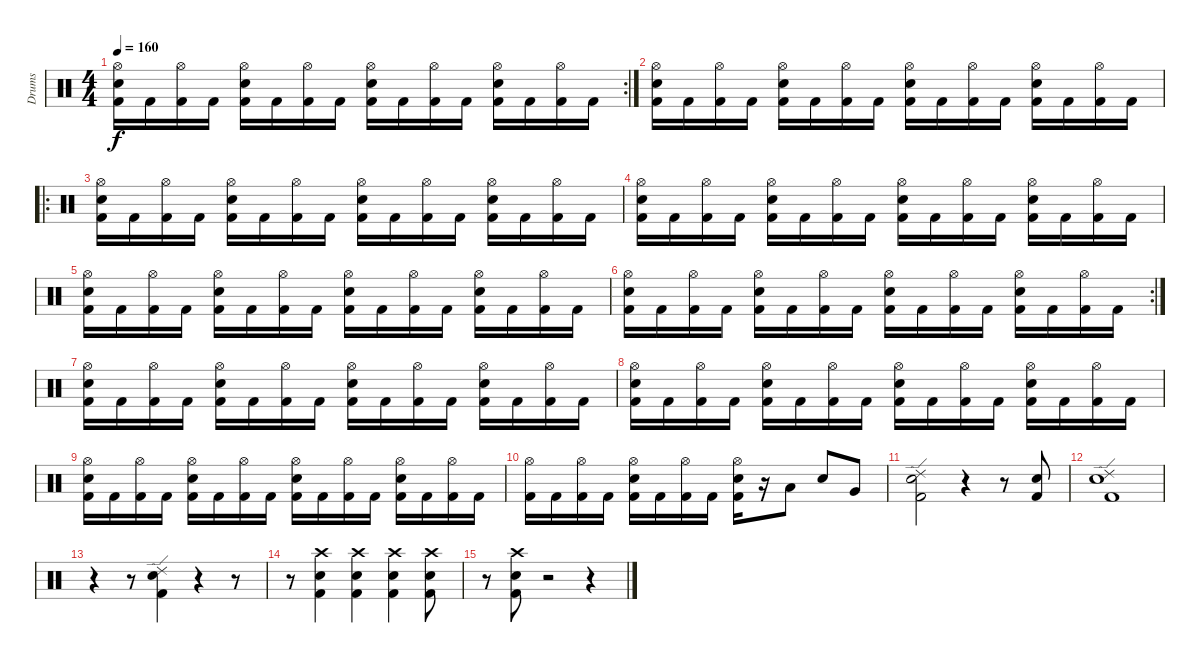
\track ("Drums" "Drums") {instrument percussion}
\staff {score}
\articulation defaults
\rc 2
\ts (4 4)
\tempo 160
\clef neutral
\ks c
("Hi-Hat (open)" "Electric Snare (hit)" "Kick (hit) 2").16{dy f} "Kick (hit) 2".16 ("Hi-Hat (open)" "Kick (hit) 2").16 "Kick (hit) 2".16 ("Hi-Hat (open)" "Electric Snare (hit)" "Kick (hit) 2").16 "Kick (hit) 2".16 ("Hi-Hat (open)" "Kick (hit) 2").16 "Kick (hit) 2".16 ("Hi-Hat (open)" "Electric Snare (hit)" "Kick (hit) 2").16 "Kick (hit) 2".16 ("Hi-Hat (open)" "Kick (hit) 2").16 "Kick (hit) 2".16 ("Hi-Hat (open)" "Electric Snare (hit)" "Kick (hit) 2").16 "Kick (hit) 2".16 ("Hi-Hat (open)" "Kick (hit) 2").16 "Kick (hit) 2".16 |
("Hi-Hat (open)" "Electric Snare (hit)" "Kick (hit) 2").16 "Kick (hit) 2".16 ("Hi-Hat (open)" "Kick (hit) 2").16 "Kick (hit) 2".16 ("Hi-Hat (open)" "Electric Snare (hit)" "Kick (hit) 2").16 "Kick (hit) 2".16 ("Hi-Hat (open)" "Kick (hit) 2").16 "Kick (hit) 2".16 ("Hi-Hat (open)" "Electric Snare (hit)" "Kick (hit) 2").16 "Kick (hit) 2".16 ("Hi-Hat (open)" "Kick (hit) 2").16 "Kick (hit) 2".16 ("Hi-Hat (open)" "Electric Snare (hit)" "Kick (hit) 2").16 "Kick (hit) 2".16 ("Hi-Hat (open)" "Kick (hit) 2").16 "Kick (hit) 2".16 |
\ro
("Hi-Hat (open)" "Electric Snare (hit)" "Kick (hit) 2").16 "Kick (hit) 2".16 ("Hi-Hat (open)" "Kick (hit) 2").16 "Kick (hit) 2".16 ("Hi-Hat (open)" "Electric Snare (hit)" "Kick (hit) 2").16 "Kick (hit) 2".16 ("Hi-Hat (open)" "Kick (hit) 2").16 "Kick (hit) 2".16 ("Hi-Hat (open)" "Electric Snare (hit)" "Kick (hit) 2").16 "Kick (hit) 2".16 ("Hi-Hat (open)" "Kick (hit) 2").16 "Kick (hit) 2".16 ("Hi-Hat (open)" "Electric Snare (hit)" "Kick (hit) 2").16 "Kick (hit) 2".16 ("Hi-Hat (open)" "Kick (hit) 2").16 "Kick (hit) 2".16 |
("Hi-Hat (open)" "Electric Snare (hit)" "Kick (hit) 2").16 "Kick (hit) 2".16 ("Hi-Hat (open)" "Kick (hit) 2").16 "Kick (hit) 2".16 ("Hi-Hat (open)" "Electric Snare (hit)" "Kick (hit) 2").16 "Kick (hit) 2".16 ("Hi-Hat (open)" "Kick (hit) 2").16 "Kick (hit) 2".16 ("Hi-Hat (open)" "Electric Snare (hit)" "Kick (hit) 2").16 "Kick (hit) 2".16 ("Hi-Hat (open)" "Kick (hit) 2").16 "Kick (hit) 2".16 ("Hi-Hat (open)" "Electric Snare (hit)" "Kick (hit) 2").16 "Kick (hit) 2".16 ("Hi-Hat (open)" "Kick (hit) 2").16 "Kick (hit) 2".16 |
("Hi-Hat (open)" "Electric Snare (hit)" "Kick (hit) 2").16 "Kick (hit) 2".16 ("Hi-Hat (open)" "Kick (hit) 2").16 "Kick (hit) 2".16 ("Hi-Hat (open)" "Electric Snare (hit)" "Kick (hit) 2").16 "Kick (hit) 2".16 ("Hi-Hat (open)" "Kick (hit) 2").16 "Kick (hit) 2".16 ("Hi-Hat (open)" "Electric Snare (hit)" "Kick (hit) 2").16 "Kick (hit) 2".16 ("Hi-Hat (open)" "Kick (hit) 2").16 "Kick (hit) 2".16 ("Hi-Hat (open)" "Electric Snare (hit)" "Kick (hit) 2").16 "Kick (hit) 2".16 ("Hi-Hat (open)" "Kick (hit) 2").16 "Kick (hit) 2".16 |
\rc 2
("Hi-Hat (open)" "Electric Snare (hit)" "Kick (hit) 2").16 "Kick (hit) 2".16 ("Hi-Hat (open)" "Kick (hit) 2").16 "Kick (hit) 2".16 ("Hi-Hat (open)" "Electric Snare (hit)" "Kick (hit) 2").16 "Kick (hit) 2".16 ("Hi-Hat (open)" "Kick (hit) 2").16 "Kick (hit) 2".16 ("Hi-Hat (open)" "Electric Snare (hit)" "Kick (hit) 2").16 "Kick (hit) 2".16 ("Hi-Hat (open)" "Kick (hit) 2").16 "Kick (hit) 2".16 ("Hi-Hat (open)" "Electric Snare (hit)" "Kick (hit) 2").16 "Kick (hit) 2".16 ("Hi-Hat (open)" "Kick (hit) 2").16 "Kick (hit) 2".16 |
("Hi-Hat (open)" "Electric Snare (hit)" "Kick (hit) 2").16 "Kick (hit) 2".16 ("Hi-Hat (open)" "Kick (hit) 2").16 "Kick (hit) 2".16 ("Hi-Hat (open)" "Electric Snare (hit)" "Kick (hit) 2").16 "Kick (hit) 2".16 ("Hi-Hat (open)" "Kick (hit) 2").16 "Kick (hit) 2".16 ("Hi-Hat (open)" "Electric Snare (hit)" "Kick (hit) 2").16 "Kick (hit) 2".16 ("Hi-Hat (open)" "Kick (hit) 2").16 "Kick (hit) 2".16 ("Hi-Hat (open)" "Electric Snare (hit)" "Kick (hit) 2").16 "Kick (hit) 2".16 ("Hi-Hat (open)" "Kick (hit) 2").16 "Kick (hit) 2".16 |
("Hi-Hat (open)" "Electric Snare (hit)" "Kick (hit) 2").16 "Kick (hit) 2".16 ("Hi-Hat (open)" "Kick (hit) 2").16 "Kick (hit) 2".16 ("Hi-Hat (open)" "Electric Snare (hit)" "Kick (hit) 2").16 "Kick (hit) 2".16 ("Hi-Hat (open)" "Kick (hit) 2").16 "Kick (hit) 2".16 ("Hi-Hat (open)" "Electric Snare (hit)" "Kick (hit) 2").16 "Kick (hit) 2".16 ("Hi-Hat (open)" "Kick (hit) 2").16 "Kick (hit) 2".16 ("Hi-Hat (open)" "Electric Snare (hit)" "Kick (hit) 2").16 "Kick (hit) 2".16 ("Hi-Hat (open)" "Kick (hit) 2").16 "Kick (hit) 2".16 |
("Hi-Hat (open)" "Electric Snare (hit)" "Kick (hit) 2").16 "Kick (hit) 2".16 ("Hi-Hat (open)" "Kick (hit) 2").16 "Kick (hit) 2".16 ("Hi-Hat (open)" "Electric Snare (hit)" "Kick (hit) 2").16 "Kick (hit) 2".16 ("Hi-Hat (open)" "Kick (hit) 2").16 "Kick (hit) 2".16 ("Hi-Hat (open)" "Electric Snare (hit)" "Kick (hit) 2").16 "Kick (hit) 2".16 ("Hi-Hat (open)" "Kick (hit) 2").16 "Kick (hit) 2".16 ("Hi-Hat (open)" "Electric Snare (hit)" "Kick (hit) 2").16 "Kick (hit) 2".16 ("Hi-Hat (open)" "Kick (hit) 2").16 "Kick (hit) 2".16 |
("Hi-Hat (open)" "Kick (hit) 2").16 "Kick (hit) 2".16 ("Hi-Hat (open)" "Kick (hit) 2").16 "Kick (hit) 2".16 ("Hi-Hat (open)" "Electric Snare (hit)" "Kick (hit) 2").16 "Kick (hit) 2".16 ("Hi-Hat (open)" "Kick (hit) 2").16 "Kick (hit) 2".16 ("Hi-Hat (open)" "Electric Snare (hit)" "Kick (hit) 2").16 r.16 "Low Tom (hit)".8 "Electric Snare (hit)".8 "Very Low Tom (hit)".8 |
("Ride (edge) 2" "Electric Snare (hit)" "Kick (hit) 2").2 r.4 r.8 ("Electric Snare (hit)" "Kick (hit) 2").8 |
("Ride (edge) 2" "Electric Snare (hit)" "Kick (hit) 2").1 |
r.4 r.8 ("Ride (edge) 2" "Electric Snare (hit)" "Kick (hit) 2").4 r.4 r.8 |
r.8 ("Crash high (hit)" "Electric Snare (hit)" "Kick (hit) 2").4 ("Crash high (hit)" "Electric Snare (hit)" "Kick (hit) 2").4 ("Crash high (hit)" "Electric Snare (hit)" "Kick (hit) 2").4 ("Crash high (hit)" "Electric Snare (hit)" "Kick (hit) 2").8 |
r.8 ("Crash high (hit)" "Electric Snare (hit)" "Kick (hit) 2").8 r.2 r.4
